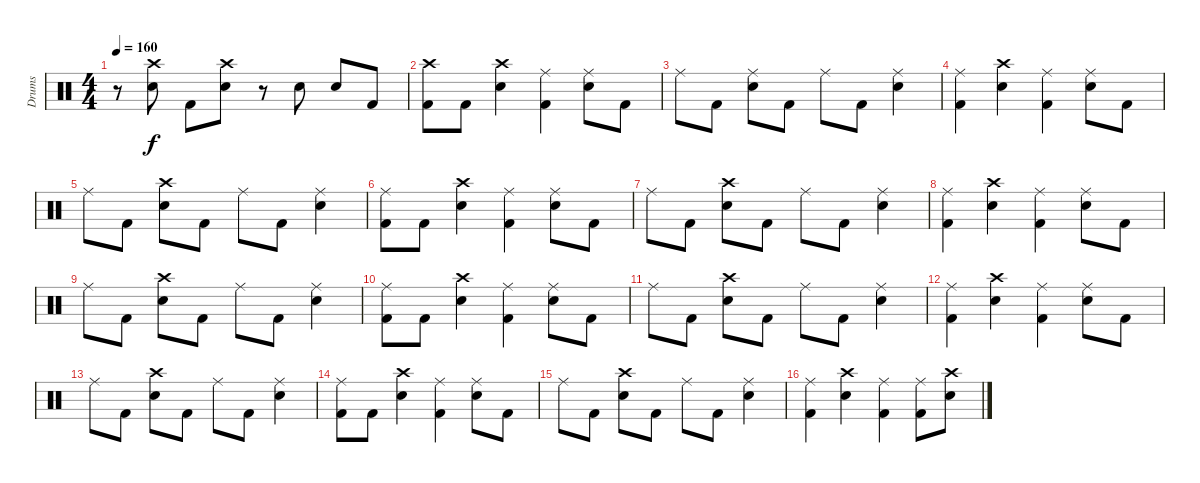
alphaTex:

\track ("Drums" "Drums") {instrument percussion}
\staff {score}
\articulation defaults
\ts (4 4)
\tempo 160
\clef neutral
\ks c
r.8{dy f} ("Crash high (hit)" "Electric Snare (hit)").8 "Kick (hit) 2".8 ("Crash high (hit)" "Electric Snare (hit)").8 r.8 "Electric Snare (hit)".8 "Electric Snare (hit)".8 "Kick (hit) 2".8 |
("Crash high (hit)" "Kick (hit) 2").8 "Kick (hit) 2".8 ("Crash high (hit)" "Electric Snare (hit)").4 ("Ride (middle)" "Kick (hit) 2").4 ("Ride (middle)" "Electric Snare (hit)").8 "Kick (hit) 2".8 |
"Ride (middle)".8 "Kick (hit) 2".8 ("Ride (middle)" "Electric Snare (hit)").8 "Kick (hit) 2".8 "Ride (middle)".8 "Kick (hit) 2".8 ("Ride (middle)" "Electric Snare (hit)").4 |
("Ride (middle)" "Kick (hit) 2").4 ("Crash high (hit)" "Electric Snare (hit)").4 ("Ride (middle)" "Kick (hit) 2").4 ("Ride (middle)" "Electric Snare (hit)").8 "Kick (hit) 2".8 |
"Ride (middle)".8 "Kick (hit) 2".8 ("Crash high (hit)" "Electric Snare (hit)").8 "Kick (hit) 2".8 "Ride (middle)".8 "Kick (hit) 2".8 ("Ride (middle)" "Electric Snare (hit)").4 |
("Ride (middle)" "Kick (hit) 2").8 "Kick (hit) 2".8 ("Crash high (hit)" "Electric Snare (hit)").4 ("Ride (middle)" "Kick (hit) 2").4 ("Ride (middle)" "Electric Snare (hit)").8 "Kick (hit) 2".8 |
"Ride (middle)".8 "Kick (hit) 2".8 ("Crash high (hit)" "Electric Snare (hit)").8 "Kick (hit) 2".8 "Ride (middle)".8 "Kick (hit) 2".8 ("Ride (middle)" "Electric Snare (hit)").4 |
("Ride (middle)" "Kick (hit) 2").4 ("Crash high (hit)" "Electric Snare (hit)").4 ("Ride (middle)" "Kick (hit) 2").4 ("Ride (middle)" "Electric Snare (hit)").8 "Kick (hit) 2".8 |
"Ride (middle)".8 "Kick (hit) 2".8 ("Crash high (hit)" "Electric Snare (hit)").8 "Kick (hit) 2".8 "Ride (middle)".8 "Kick (hit) 2".8 ("Ride (middle)" "Electric Snare (hit)").4 |
("Ride (middle)" "Kick (hit) 2").8 "Kick (hit) 2".8 ("Crash high (hit)" "Electric Snare (hit)").4 ("Ride (middle)" "Kick (hit) 2").4 ("Ride (middle)" "Electric Snare (hit)").8 "Kick (hit) 2".8 |
"Ride (middle)".8 "Kick (hit) 2".8 ("Crash high (hit)" "Electric Snare (hit)").8 "Kick (hit) 2".8 "Ride (middle)".8 "Kick (hit) 2".8 ("Ride (middle)" "Electric Snare (hit)").4 |
("Ride (middle)" "Kick (hit) 2").4 ("Crash high (hit)" "Electric Snare (hit)").4 ("Ride (middle)" "Kick (hit) 2").4 ("Ride (middle)" "Electric Snare (hit)").8 "Kick (hit) 2".8 |
"Ride (middle)".8 "Kick (hit) 2".8 ("Crash high (hit)" "Electric Snare (hit)").8 "Kick (hit) 2".8 "Ride (middle)".8 "Kick (hit) 2".8 ("Ride (middle)" "Electric Snare (hit)").4 |
("Ride (middle)" "Kick (hit) 2").8 "Kick (hit) 2".8 ("Crash high (hit)" "Electric Snare (hit)").4 ("Ride (middle)" "Kick (hit) 2").4 ("Ride (middle)" "Electric Snare (hit)").8 "Kick (hit) 2".8 |
"Ride (middle)".8 "Kick (hit) 2".8 ("Crash high (hit)" "Electric Snare (hit)").8 "Kick (hit) 2".8 "Ride (middle)".8 "Kick (hit) 2".8 ("Ride (middle)" "Electric Snare (hit)").4 |
("Ride (middle)" "Kick (hit) 2").4 ("Crash high (hit)" "Electric Snare (hit)").4 ("Ride (middle)" "Kick (hit) 2").4 ("Ride (middle)" "Kick (hit) 2").8 ("Crash high (hit)" "Electric Snare (hit)").8
